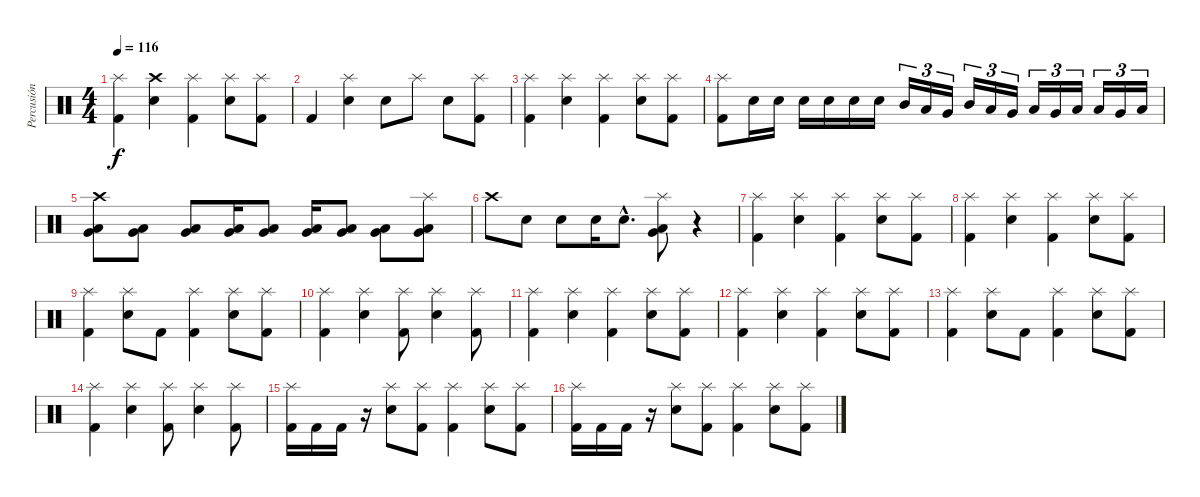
\track ("Percusión" "Percusión") {instrument percussion}
\staff {score}
\articulation defaults
\ts (4 4)
\tempo 116
\clef neutral
\ks c
("Splash (hit)" "Kick (hit) 2").4{dy f} ("Crash high (hit)" "Snare (hit) 2").4 ("Splash (hit)" "Kick (hit) 2").4 ("Splash (hit)" "Snare (hit) 2").8 ("Splash (hit)" "Kick (hit) 2").8 |
"Kick (hit) 2".4 ("Splash (hit)" "Snare (hit) 2").4 "Snare (hit) 2".8 "Splash (hit)".8 "Snare (hit) 2".8 ("Splash (hit)" "Kick (hit) 2").8 |
("Splash (hit)" "Kick (hit) 2").4 ("Splash (hit)" "Snare (hit) 2").4 ("Splash (hit)" "Kick (hit) 2").4 ("Splash (hit)" "Snare (hit) 2").8 ("Splash (hit)" "Kick (hit) 2").8 |
("Splash (hit)" "Kick (hit) 2").8 "Snare (hit) 2".16 "Snare (hit) 2".16 "Snare (hit) 2".16 "Snare (hit) 2".16 "Snare (hit) 2".16 "Snare (hit) 2".16 "Mid Tom (hit)".16{tu (3 2)} "Low Tom (hit)".16{tu (3 2)} "Very Low Tom (hit)".16{tu (3 2)} "Mid Tom (hit)".16{tu (3 2)} "Low Tom (hit)".16{tu (3 2)} "Very Low Tom (hit)".16{tu (3 2)} "Low Tom (hit)".16{tu (3 2)} "Very Low Tom (hit)".16{tu (3 2)} "Low Floor Tom (hit)".16{tu (3 2)} "Low Tom (hit)".16{tu (3 2)} "Very Low Tom (hit)".16{tu (3 2)} "Low Floor Tom (hit)".16{tu (3 2)} |
("Very Low Tom (hit)" "Low Tom (hit)" "Crash high (hit)").8 ("Very Low Tom (hit)" "Low Floor Tom (hit)").8 ("Very Low Tom (hit)" "Low Floor Tom (hit)").8 ("Very Low Tom (hit)" "Low Floor Tom (hit)").16 ("Very Low Tom (hit)" "Low Floor Tom (hit)").8 ("Very Low Tom (hit)" "Low Floor Tom (hit)").16 ("Very Low Tom (hit)" "Low Floor Tom (hit)").8 ("Very Low Tom (hit)" "Low Floor Tom (hit)").8 ("Very Low Tom (hit)" "Low Tom (hit)" "Splash (hit)").8 |
"Crash high (hit)".8 "Snare (hit) 2".8 "Snare (hit) 2".8 "Snare (hit) 2".16 "Snare (hit) 2"{hac}.8{d} ("Low Tom (hit)" "Very Low Tom (hit)" "Splash (hit)").8 r.4 |
("Splash (hit)" "Kick (hit) 2").4 ("Splash (hit)" "Snare (hit) 2").4 ("Splash (hit)" "Kick (hit) 2").4 ("Splash (hit)" "Snare (hit) 2").8 ("Splash (hit)" "Kick (hit) 2").8 |
("Splash (hit)" "Kick (hit) 2").4 ("Splash (hit)" "Snare (hit) 2").4 ("Splash (hit)" "Kick (hit) 2").4 ("Splash (hit)" "Snare (hit) 2").8 ("Splash (hit)" "Kick (hit) 2").8 |
("Splash (hit)" "Kick (hit) 2").4 ("Splash (hit)" "Snare (hit) 2").8 "Kick (hit) 2".8 ("Splash (hit)" "Kick (hit) 2").4 ("Splash (hit)" "Snare (hit) 2").8 ("Splash (hit)" "Kick (hit) 2").8 |
("Splash (hit)" "Kick (hit) 2").4 ("Splash (hit)" "Snare (hit) 2").4 ("Splash (hit)" "Kick (hit) 2").8 ("Splash (hit)" "Snare (hit) 2").4 ("Splash (hit)" "Kick (hit) 2").8 |
("Splash (hit)" "Kick (hit) 2").4 ("Splash (hit)" "Snare (hit) 2").4 ("Splash (hit)" "Kick (hit) 2").4 ("Splash (hit)" "Snare (hit) 2").8 ("Splash (hit)" "Kick (hit) 2").8 |
("Splash (hit)" "Kick (hit) 2").4 ("Splash (hit)" "Snare (hit) 2").4 ("Splash (hit)" "Kick (hit) 2").4 ("Splash (hit)" "Snare (hit) 2").8 ("Splash (hit)" "Kick (hit) 2").8 |
("Splash (hit)" "Kick (hit) 2").4 ("Splash (hit)" "Snare (hit) 2").8 "Kick (hit) 2".8 ("Splash (hit)" "Kick (hit) 2").4 ("Splash (hit)" "Snare (hit) 2").8 ("Splash (hit)" "Kick (hit) 2").8 |
("Splash (hit)" "Kick (hit) 2").4 ("Splash (hit)" "Snare (hit) 2").4 ("Splash (hit)" "Kick (hit) 2").8 ("Splash (hit)" "Snare (hit) 2").4 ("Splash (hit)" "Kick (hit) 2").8 |
("Splash (hit)" "Kick (hit) 2").16 "Kick (hit) 2".16 "Kick (hit) 2".16 r.16 ("Splash (hit)" "Snare (hit) 2").8 ("Splash (hit)" "Kick (hit) 2").8 ("Splash (hit)" "Kick (hit) 2").4 ("Splash (hit)" "Snare (hit) 2").8 ("Splash (hit)" "Kick (hit) 2").8 |
("Splash (hit)" "Kick (hit) 2").16 "Kick (hit) 2".16 "Kick (hit) 2".16 r.16 ("Splash (hit)" "Snare (hit) 2").8 ("Splash (hit)" "Kick (hit) 2").8 ("Splash (hit)" "Kick (hit) 2").4 ("Splash (hit)" "Snare (hit) 2").8 ("Splash (hit)" "Kick (hit) 2").8
